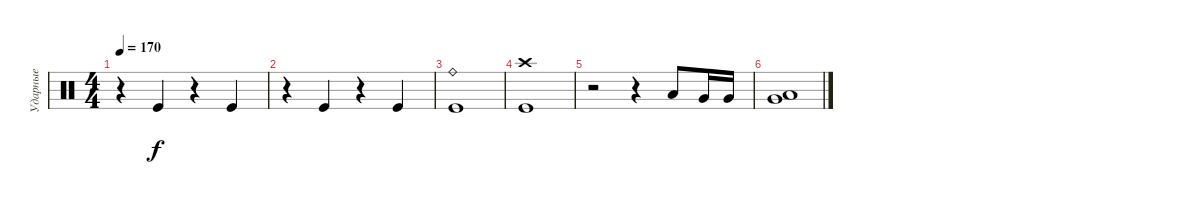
\track ("Ударные" "Ударные") {instrument percussion}
\staff {score}
\articulation defaults
\ts (4 4)
\tempo 170
\clef neutral
\ks c
r.4{dy f} "Kick (hit)".4 r.4 "Kick (hit)".4 |
r.4 "Kick (hit)".4 r.4 "Kick (hit)".4 |
("Ride (bell)" "Kick (hit)").1 |
("Crash high (hit)" "Kick (hit)").1 |
r.2 r.4 "Low Tom (hit)".8 "Very Low Tom (hit)".16 "Very Low Tom (hit)".16 |
("Low Tom (hit)" "Very Low Tom (hit)").1
